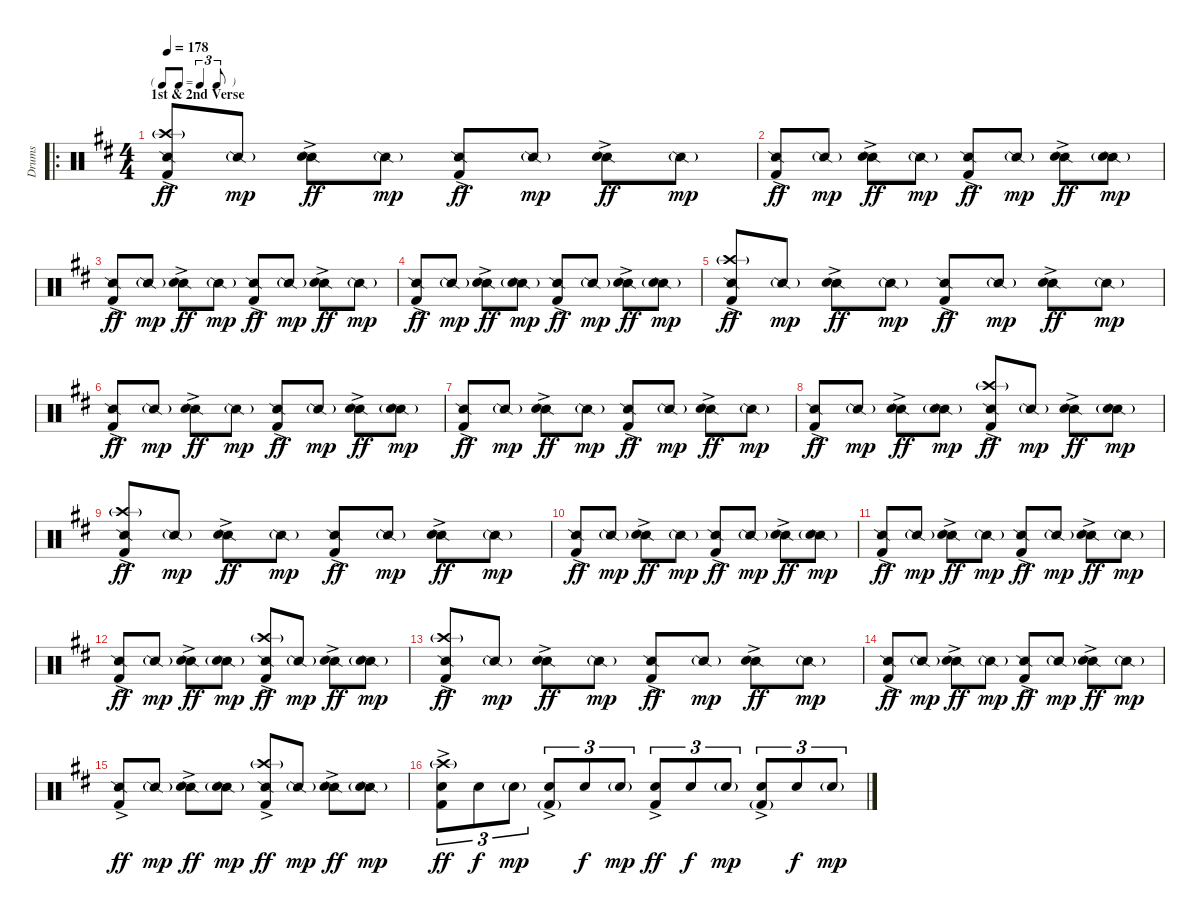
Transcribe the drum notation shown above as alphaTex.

\track ("Drums" "Drums") {instrument percussion}
\staff {score}
\articulation defaults
\ro
\ts (4 4)
\tf triplet8th
\section ("" "1st & 2nd Verse")
\tempo 178
\clef neutral
\ks d
("Snare (side stick) 2" "Crash high (hit)"{g} "Kick (hit) 2"{ac}).8{dy ff} "Snare (side stick) 2"{g}.8{dy mp} ("Snare (side stick) 2" "Snare (hit) 2"{ac}).8{dy ff} "Snare (side stick) 2"{g}.8{dy mp} ("Snare (side stick) 2" "Kick (hit) 2"{ac}).8{dy ff} "Snare (side stick) 2"{g}.8{dy mp} ("Snare (side stick) 2" "Snare (hit) 2"{ac}).8{dy ff} "Snare (side stick) 2"{g}.8{dy mp} |
("Snare (side stick) 2" "Kick (hit) 2"{ac}).8{dy ff} "Snare (side stick) 2"{g}.8{dy mp} ("Snare (side stick) 2" "Snare (hit) 2"{ac}).8{dy ff} "Snare (side stick) 2"{g}.8{dy mp} ("Snare (side stick) 2" "Kick (hit) 2"{ac}).8{dy ff} "Snare (side stick) 2"{g}.8{dy mp} ("Snare (side stick) 2" "Snare (hit) 2"{ac}).8{dy ff} ("Snare (side stick) 2"{g} "Snare (hit) 2").8{dy mp} |
("Snare (side stick) 2" "Kick (hit) 2"{ac}).8{dy ff} "Snare (side stick) 2"{g}.8{dy mp} ("Snare (side stick) 2" "Snare (hit) 2"{ac}).8{dy ff} "Snare (side stick) 2"{g}.8{dy mp} ("Snare (side stick) 2" "Kick (hit) 2"{ac}).8{dy ff} "Snare (side stick) 2"{g}.8{dy mp} ("Snare (side stick) 2" "Snare (hit) 2"{ac}).8{dy ff} "Snare (side stick) 2"{g}.8{dy mp} |
("Snare (side stick) 2" "Kick (hit) 2"{ac}).8{dy ff} "Snare (side stick) 2"{g}.8{dy mp} ("Snare (side stick) 2" "Snare (hit) 2"{ac}).8{dy ff} ("Snare (side stick) 2"{g} "Snare (hit) 2").8{dy mp} ("Snare (side stick) 2" "Kick (hit) 2"{ac}).8{dy ff} "Snare (side stick) 2"{g}.8{dy mp} ("Snare (side stick) 2" "Snare (hit) 2"{ac}).8{dy ff} ("Snare (side stick) 2"{g} "Snare (hit) 2").8{dy mp} |
("Snare (side stick) 2" "Crash high (hit)"{g} "Kick (hit) 2"{ac}).8{dy ff} "Snare (side stick) 2"{g}.8{dy mp} ("Snare (side stick) 2" "Snare (hit) 2"{ac}).8{dy ff} "Snare (side stick) 2"{g}.8{dy mp} ("Snare (side stick) 2" "Kick (hit) 2"{ac}).8{dy ff} "Snare (side stick) 2"{g}.8{dy mp} ("Snare (side stick) 2" "Snare (hit) 2"{ac}).8{dy ff} "Snare (side stick) 2"{g}.8{dy mp} |
("Snare (side stick) 2" "Kick (hit) 2"{ac}).8{dy ff} "Snare (side stick) 2"{g}.8{dy mp} ("Snare (side stick) 2" "Snare (hit) 2"{ac}).8{dy ff} "Snare (side stick) 2"{g}.8{dy mp} ("Snare (side stick) 2" "Kick (hit) 2"{ac}).8{dy ff} "Snare (side stick) 2"{g}.8{dy mp} ("Snare (side stick) 2" "Snare (hit) 2"{ac}).8{dy ff} ("Snare (side stick) 2"{g} "Snare (hit) 2").8{dy mp} |
("Snare (side stick) 2" "Kick (hit) 2"{ac}).8{dy ff} "Snare (side stick) 2"{g}.8{dy mp} ("Snare (side stick) 2" "Snare (hit) 2"{ac}).8{dy ff} "Snare (side stick) 2"{g}.8{dy mp} ("Snare (side stick) 2" "Kick (hit) 2"{ac}).8{dy ff} "Snare (side stick) 2"{g}.8{dy mp} ("Snare (side stick) 2" "Snare (hit) 2"{ac}).8{dy ff} "Snare (side stick) 2"{g}.8{dy mp} |
("Snare (side stick) 2" "Kick (hit) 2"{ac}).8{dy ff} "Snare (side stick) 2"{g}.8{dy mp} ("Snare (side stick) 2" "Snare (hit) 2"{ac}).8{dy ff} ("Snare (side stick) 2"{g} "Snare (hit) 2").8{dy mp} ("Snare (side stick) 2" "Crash high (hit)"{g} "Kick (hit) 2"{ac}).8{dy ff} "Snare (side stick) 2"{g}.8{dy mp} ("Snare (side stick) 2" "Snare (hit) 2"{ac}).8{dy ff} ("Snare (side stick) 2"{g} "Snare (hit) 2").8{dy mp} |
("Snare (side stick) 2" "Crash high (hit)"{g} "Kick (hit) 2"{ac}).8{dy ff} "Snare (side stick) 2"{g}.8{dy mp} ("Snare (side stick) 2" "Snare (hit) 2"{ac}).8{dy ff} "Snare (side stick) 2"{g}.8{dy mp} ("Snare (side stick) 2" "Kick (hit) 2"{ac}).8{dy ff} "Snare (side stick) 2"{g}.8{dy mp} ("Snare (side stick) 2" "Snare (hit) 2"{ac}).8{dy ff} "Snare (side stick) 2"{g}.8{dy mp} |
("Snare (side stick) 2" "Kick (hit) 2"{ac}).8{dy ff} "Snare (side stick) 2"{g}.8{dy mp} ("Snare (side stick) 2" "Snare (hit) 2"{ac}).8{dy ff} "Snare (side stick) 2"{g}.8{dy mp} ("Snare (side stick) 2" "Kick (hit) 2"{ac}).8{dy ff} "Snare (side stick) 2"{g}.8{dy mp} ("Snare (side stick) 2" "Snare (hit) 2"{ac}).8{dy ff} ("Snare (side stick) 2"{g} "Snare (hit) 2").8{dy mp} |
("Snare (side stick) 2" "Kick (hit) 2"{ac}).8{dy ff} "Snare (side stick) 2"{g}.8{dy mp} ("Snare (side stick) 2" "Snare (hit) 2"{ac}).8{dy ff} "Snare (side stick) 2"{g}.8{dy mp} ("Snare (side stick) 2" "Kick (hit) 2"{ac}).8{dy ff} "Snare (side stick) 2"{g}.8{dy mp} ("Snare (side stick) 2" "Snare (hit) 2"{ac}).8{dy ff} "Snare (side stick) 2"{g}.8{dy mp} |
("Snare (side stick) 2" "Kick (hit) 2"{ac}).8{dy ff} "Snare (side stick) 2"{g}.8{dy mp} ("Snare (side stick) 2" "Snare (hit) 2"{ac}).8{dy ff} ("Snare (side stick) 2"{g} "Snare (hit) 2").8{dy mp} ("Snare (side stick) 2" "Crash high (hit)"{g} "Kick (hit) 2"{ac}).8{dy ff} "Snare (side stick) 2"{g}.8{dy mp} ("Snare (side stick) 2" "Snare (hit) 2"{ac}).8{dy ff} ("Snare (side stick) 2"{g} "Snare (hit) 2").8{dy mp} |
("Snare (side stick) 2" "Crash high (hit)"{g} "Kick (hit) 2"{ac}).8{dy ff} "Snare (side stick) 2"{g}.8{dy mp} ("Snare (side stick) 2" "Snare (hit) 2"{ac}).8{dy ff} "Snare (side stick) 2"{g}.8{dy mp} ("Snare (side stick) 2" "Kick (hit) 2"{ac}).8{dy ff} "Snare (side stick) 2"{g}.8{dy mp} ("Snare (side stick) 2" "Snare (hit) 2"{ac}).8{dy ff} "Snare (side stick) 2"{g}.8{dy mp} |
("Snare (side stick) 2" "Kick (hit) 2"{ac}).8{dy ff} "Snare (side stick) 2"{g}.8{dy mp} ("Snare (side stick) 2" "Snare (hit) 2"{ac}).8{dy ff} "Snare (side stick) 2"{g}.8{dy mp} ("Snare (side stick) 2" "Kick (hit) 2"{ac}).8{dy ff} "Snare (side stick) 2"{g}.8{dy mp} ("Snare (side stick) 2" "Snare (hit) 2"{ac}).8{dy ff} "Snare (side stick) 2"{g}.8{dy mp} |
("Snare (side stick) 2" "Kick (hit) 2"{ac}).8{dy ff} "Snare (side stick) 2"{g}.8{dy mp} ("Snare (side stick) 2" "Snare (hit) 2"{ac}).8{dy ff} ("Snare (side stick) 2"{g} "Snare (hit) 2").8{dy mp} ("Snare (side stick) 2" "Crash high (hit)"{g} "Kick (hit) 2"{ac}).8{dy ff} "Snare (side stick) 2"{g}.8{dy mp} ("Snare (side stick) 2" "Snare (hit) 2"{ac}).8{dy ff} ("Snare (side stick) 2"{g} "Snare (hit) 2").8{dy mp} |
("Crash high (hit)"{g} "Snare (hit) 2" "Kick (hit) 2"{ac}).8{tu (3 2) dy ff} "Snare (hit) 2".8{tu (3 2) dy f} "Snare (hit) 2"{g}.8{tu (3 2) dy mp} ("Snare (hit) 2"{ac} "Kick (hit) 2"{g}).8{tu (3 2)} "Snare (hit) 2".8{tu (3 2) dy f} "Snare (hit) 2"{g}.8{tu (3 2) dy mp} ("Snare (hit) 2" "Kick (hit) 2"{ac}).8{tu (3 2) dy ff} "Snare (hit) 2".8{tu (3 2) dy f} "Snare (hit) 2"{g}.8{tu (3 2) dy mp} ("Snare (hit) 2"{ac} "Kick (hit) 2"{g}).8{tu (3 2)} "Snare (hit) 2".8{tu (3 2) dy f} "Snare (hit) 2"{g}.8{tu (3 2) dy mp}
